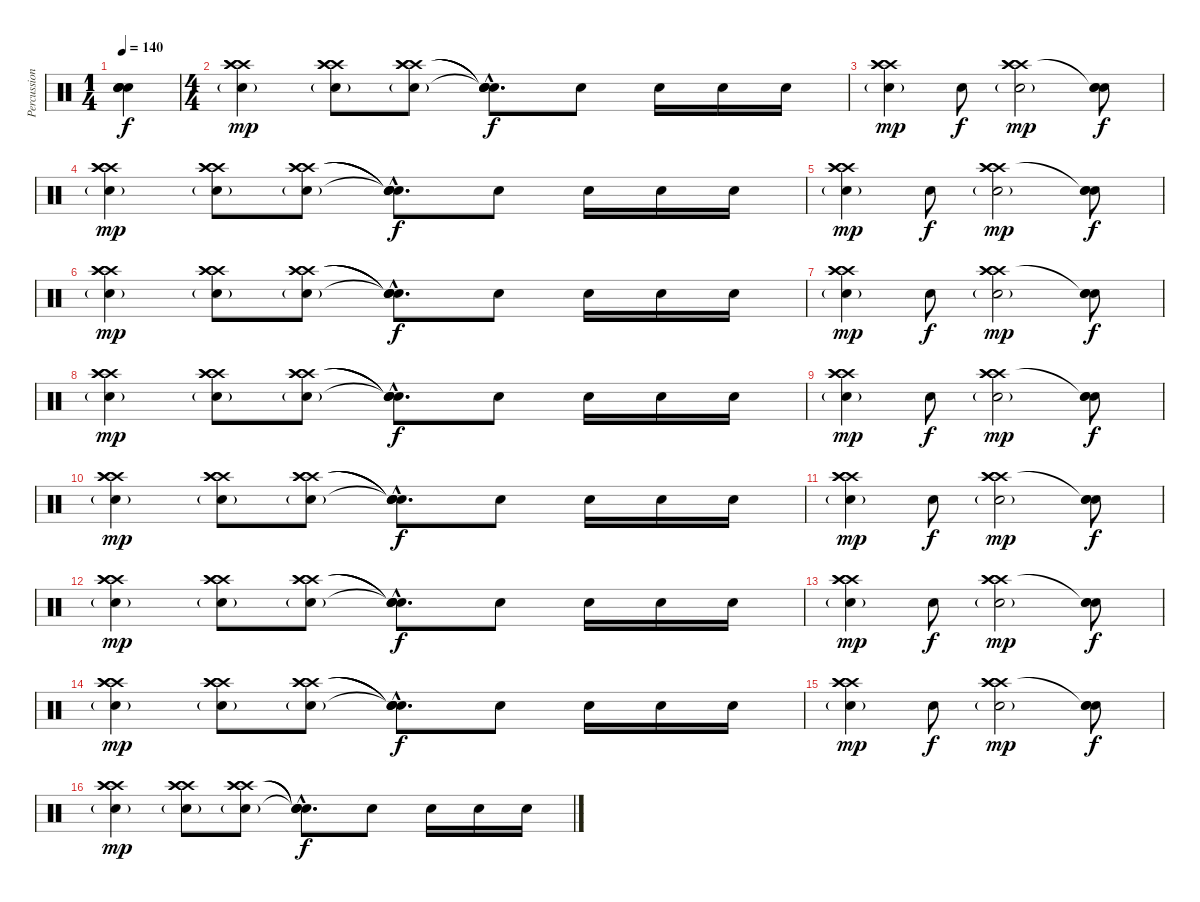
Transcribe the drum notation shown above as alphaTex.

\track ("Percussion" "Percussion") {instrument percussion}
\staff {score}
\articulation defaults
\ts (1 4)
\tempo 140
\clef neutral
\ks c
("Electric Snare (hit)" "Electric Snare (hit)" "Electric Snare (hit)" "Electric Snare (hit)").4{dy f} |
\ts (4 4)
("Crash high (hit)" "Crash high (hit)" "Crash high (hit)" "Electric Snare (hit)"{g}).4{dy mp} ("Crash high (hit)" "Crash high (hit)" "Crash high (hit)" "Electric Snare (hit)"{g}).8 ("Crash high (hit)" "Crash high (hit)" "Crash high (hit)" "Electric Snare (hit)"{g}).8 ("Snare (hit)"{hac t} "Snare (hit)"{hac t} "Snare (hit)"{hac t} "Snare (hit)"{hac t}).8{d dy f} "Electric Snare (hit)".8 "Electric Snare (hit)".16 "Electric Snare (hit)".16 "Electric Snare (hit)".16 |
("Crash high (hit)" "Crash high (hit)" "Crash high (hit)" "Electric Snare (hit)"{g}).4{dy mp} "Electric Snare (hit)".8{dy f} ("Crash high (hit)" "Crash high (hit)" "Crash high (hit)" "Electric Snare (hit)"{g}).2{dy mp} ("Snare (hit)"{t} "Electric Snare (hit)" "Electric Snare (hit)").8{dy f} |
("Crash high (hit)" "Crash high (hit)" "Crash high (hit)" "Electric Snare (hit)"{g}).4{dy mp} ("Crash high (hit)" "Crash high (hit)" "Crash high (hit)" "Electric Snare (hit)"{g}).8 ("Crash high (hit)" "Crash high (hit)" "Crash high (hit)" "Electric Snare (hit)"{g}).8 ("Snare (hit)"{hac t} "Snare (hit)"{hac t} "Snare (hit)"{hac t} "Snare (hit)"{hac t}).8{d dy f} "Electric Snare (hit)".8 "Electric Snare (hit)".16 "Electric Snare (hit)".16 "Electric Snare (hit)".16 |
("Crash high (hit)" "Crash high (hit)" "Crash high (hit)" "Electric Snare (hit)"{g}).4{dy mp} "Electric Snare (hit)".8{dy f} ("Crash high (hit)" "Crash high (hit)" "Crash high (hit)" "Electric Snare (hit)"{g}).2{dy mp} ("Snare (hit)"{t} "Electric Snare (hit)" "Electric Snare (hit)").8{dy f} |
("Crash high (hit)" "Crash high (hit)" "Crash high (hit)" "Electric Snare (hit)"{g}).4{dy mp} ("Crash high (hit)" "Crash high (hit)" "Crash high (hit)" "Electric Snare (hit)"{g}).8 ("Crash high (hit)" "Crash high (hit)" "Crash high (hit)" "Electric Snare (hit)"{g}).8 ("Snare (hit)"{hac t} "Snare (hit)"{hac t} "Snare (hit)"{hac t} "Snare (hit)"{hac t}).8{d dy f} "Electric Snare (hit)".8 "Electric Snare (hit)".16 "Electric Snare (hit)".16 "Electric Snare (hit)".16 |
("Crash high (hit)" "Crash high (hit)" "Crash high (hit)" "Electric Snare (hit)"{g}).4{dy mp} "Electric Snare (hit)".8{dy f} ("Crash high (hit)" "Crash high (hit)" "Crash high (hit)" "Electric Snare (hit)"{g}).2{dy mp} ("Snare (hit)"{t} "Electric Snare (hit)" "Electric Snare (hit)").8{dy f} |
("Crash high (hit)" "Crash high (hit)" "Crash high (hit)" "Electric Snare (hit)"{g}).4{dy mp} ("Crash high (hit)" "Crash high (hit)" "Crash high (hit)" "Electric Snare (hit)"{g}).8 ("Crash high (hit)" "Crash high (hit)" "Crash high (hit)" "Electric Snare (hit)"{g}).8 ("Snare (hit)"{hac t} "Snare (hit)"{hac t} "Snare (hit)"{hac t} "Snare (hit)"{hac t}).8{d dy f} "Electric Snare (hit)".8 "Electric Snare (hit)".16 "Electric Snare (hit)".16 "Electric Snare (hit)".16 |
("Crash high (hit)" "Crash high (hit)" "Crash high (hit)" "Electric Snare (hit)"{g}).4{dy mp} "Electric Snare (hit)".8{dy f} ("Crash high (hit)" "Crash high (hit)" "Crash high (hit)" "Electric Snare (hit)"{g}).2{dy mp} ("Snare (hit)"{t} "Electric Snare (hit)" "Electric Snare (hit)").8{dy f} |
("Crash high (hit)" "Crash high (hit)" "Crash high (hit)" "Electric Snare (hit)"{g}).4{dy mp} ("Crash high (hit)" "Crash high (hit)" "Crash high (hit)" "Electric Snare (hit)"{g}).8 ("Crash high (hit)" "Crash high (hit)" "Crash high (hit)" "Electric Snare (hit)"{g}).8 ("Snare (hit)"{hac t} "Snare (hit)"{hac t} "Snare (hit)"{hac t} "Snare (hit)"{hac t}).8{d dy f} "Electric Snare (hit)".8 "Electric Snare (hit)".16 "Electric Snare (hit)".16 "Electric Snare (hit)".16 |
("Crash high (hit)" "Crash high (hit)" "Crash high (hit)" "Electric Snare (hit)"{g}).4{dy mp} "Electric Snare (hit)".8{dy f} ("Crash high (hit)" "Crash high (hit)" "Crash high (hit)" "Electric Snare (hit)"{g}).2{dy mp} ("Snare (hit)"{t} "Electric Snare (hit)" "Electric Snare (hit)").8{dy f} |
("Crash high (hit)" "Crash high (hit)" "Crash high (hit)" "Electric Snare (hit)"{g}).4{dy mp} ("Crash high (hit)" "Crash high (hit)" "Crash high (hit)" "Electric Snare (hit)"{g}).8 ("Crash high (hit)" "Crash high (hit)" "Crash high (hit)" "Electric Snare (hit)"{g}).8 ("Snare (hit)"{hac t} "Snare (hit)"{hac t} "Snare (hit)"{hac t} "Snare (hit)"{hac t}).8{d dy f} "Electric Snare (hit)".8 "Electric Snare (hit)".16 "Electric Snare (hit)".16 "Electric Snare (hit)".16 |
("Crash high (hit)" "Crash high (hit)" "Crash high (hit)" "Electric Snare (hit)"{g}).4{dy mp} "Electric Snare (hit)".8{dy f} ("Crash high (hit)" "Crash high (hit)" "Crash high (hit)" "Electric Snare (hit)"{g}).2{dy mp} ("Snare (hit)"{t} "Electric Snare (hit)" "Electric Snare (hit)").8{dy f} |
("Crash high (hit)" "Crash high (hit)" "Crash high (hit)" "Electric Snare (hit)"{g}).4{dy mp} ("Crash high (hit)" "Crash high (hit)" "Crash high (hit)" "Electric Snare (hit)"{g}).8 ("Crash high (hit)" "Crash high (hit)" "Crash high (hit)" "Electric Snare (hit)"{g}).8 ("Snare (hit)"{hac t} "Snare (hit)"{hac t} "Snare (hit)"{hac t} "Snare (hit)"{hac t}).8{d dy f} "Electric Snare (hit)".8 "Electric Snare (hit)".16 "Electric Snare (hit)".16 "Electric Snare (hit)".16 |
("Crash high (hit)" "Crash high (hit)" "Crash high (hit)" "Electric Snare (hit)"{g}).4{dy mp} "Electric Snare (hit)".8{dy f} ("Crash high (hit)" "Crash high (hit)" "Crash high (hit)" "Electric Snare (hit)"{g}).2{dy mp} ("Snare (hit)"{t} "Electric Snare (hit)" "Electric Snare (hit)").8{dy f} |
("Crash high (hit)" "Crash high (hit)" "Crash high (hit)" "Electric Snare (hit)"{g}).4{dy mp} ("Crash high (hit)" "Crash high (hit)" "Crash high (hit)" "Electric Snare (hit)"{g}).8 ("Crash high (hit)" "Crash high (hit)" "Crash high (hit)" "Electric Snare (hit)"{g}).8 ("Snare (hit)"{hac t} "Snare (hit)"{hac t} "Snare (hit)"{hac t} "Snare (hit)"{hac t}).8{d dy f} "Electric Snare (hit)".8 "Electric Snare (hit)".16 "Electric Snare (hit)".16 "Electric Snare (hit)".16
